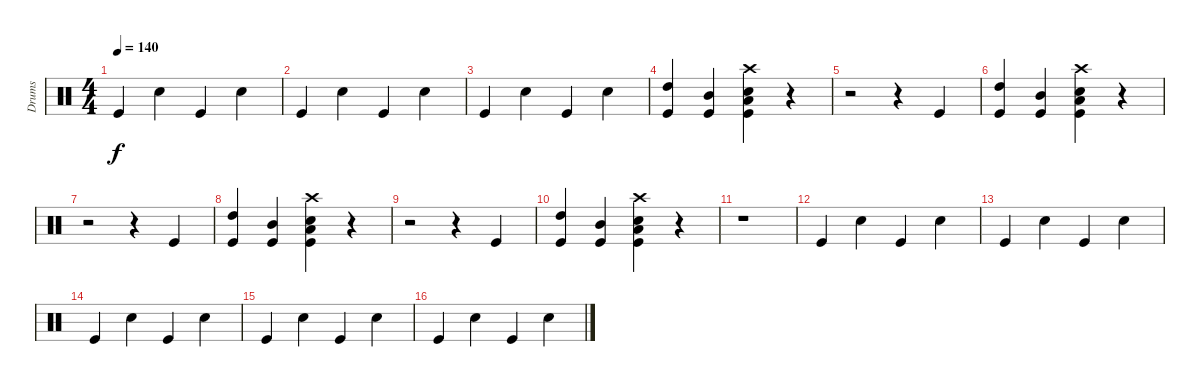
\track ("Drums" "Drums") {instrument percussion}
\staff {score}
\articulation defaults
\ts (4 4)
\tempo 140
\clef neutral
\ks c "Kick (hit)".4{dy f} "Snare (hit) 2".4 "Kick (hit)".4 "Snare (hit) 2".4
|
"Kick (hit)".4 "Snare (hit) 2".4 "Kick (hit)".4 "Snare (hit) 2".4 |
"Kick (hit)".4 "Snare (hit) 2".4 "Kick (hit)".4 "Snare (hit) 2".4 |
("High Tom (hit)" "Kick (hit)").4 ("Mid Tom (hit)" "Kick (hit)").4 ("Low Floor Tom (hit)" "Crash high (hit)" "Snare (hit) 2" "Kick (hit)").4 r.4 |
r.2 r.4 "Kick (hit)".4 |
("High Tom (hit)" "Kick (hit)").4 ("Mid Tom (hit)" "Kick (hit)").4 ("Low Floor Tom (hit)" "Crash high (hit)" "Snare (hit) 2" "Kick (hit)").4 r.4 |
r.2 r.4 "Kick (hit)".4 |
("High Tom (hit)" "Kick (hit)").4 ("Mid Tom (hit)" "Kick (hit)").4 ("Low Floor Tom (hit)" "Crash high (hit)" "Snare (hit) 2" "Kick (hit)").4 r.4 |
r.2 r.4 "Kick (hit)".4 |
("High Tom (hit)" "Kick (hit)").4 ("Mid Tom (hit)" "Kick (hit)").4 ("Low Floor Tom (hit)" "Crash high (hit)" "Snare (hit) 2" "Kick (hit)").4 r.4 |
r.1 |
"Kick (hit)".4 "Snare (hit) 2".4 "Kick (hit)".4 "Snare (hit) 2".4 |
"Kick (hit)".4 "Snare (hit) 2".4 "Kick (hit)".4 "Snare (hit) 2".4 |
"Kick (hit)".4 "Snare (hit) 2".4 "Kick (hit)".4 "Snare (hit) 2".4 |
"Kick (hit)".4 "Snare (hit) 2".4 "Kick (hit)".4 "Snare (hit) 2".4 |
"Kick (hit)".4 "Snare (hit) 2".4 "Kick (hit)".4 "Snare (hit) 2".4
